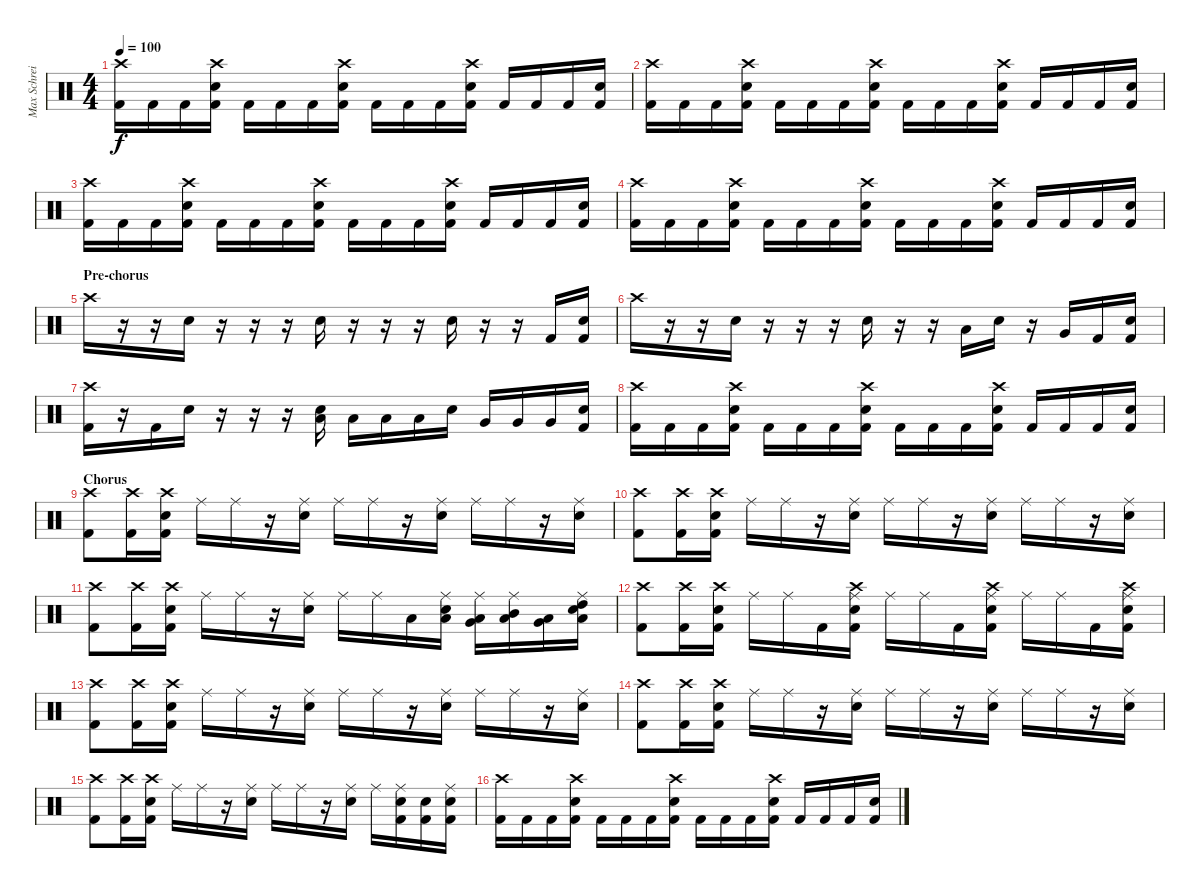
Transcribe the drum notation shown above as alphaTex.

\track ("Max Schreiber " "Max Schrei") {instrument percussion}
\staff {score}
\articulation defaults
\ts (4 4)
\tempo 100
\clef neutral
\ks c
("Crash high (hit)" "Kick (hit) 2").16{dy f} "Kick (hit) 2".16 "Kick (hit) 2".16 ("Crash high (hit)" "Electric Snare (hit)" "Kick (hit) 2").16 "Kick (hit) 2".16 "Kick (hit) 2".16 "Kick (hit) 2".16 ("Crash high (hit)" "Electric Snare (hit)" "Kick (hit) 2").16 "Kick (hit) 2".16 "Kick (hit) 2".16 "Kick (hit) 2".16 ("Crash high (hit)" "Electric Snare (hit)" "Kick (hit) 2").16 "Kick (hit) 2".16 "Kick (hit) 2".16 "Kick (hit) 2".16 ("Electric Snare (hit)" "Kick (hit) 2").16 |
("Crash high (hit)" "Kick (hit) 2").16 "Kick (hit) 2".16 "Kick (hit) 2".16 ("Crash high (hit)" "Electric Snare (hit)" "Kick (hit) 2").16 "Kick (hit) 2".16 "Kick (hit) 2".16 "Kick (hit) 2".16 ("Crash high (hit)" "Electric Snare (hit)" "Kick (hit) 2").16 "Kick (hit) 2".16 "Kick (hit) 2".16 "Kick (hit) 2".16 ("Crash high (hit)" "Electric Snare (hit)" "Kick (hit) 2").16 "Kick (hit) 2".16 "Kick (hit) 2".16 "Kick (hit) 2".16 ("Electric Snare (hit)" "Kick (hit) 2").16 |
("Crash high (hit)" "Kick (hit) 2").16 "Kick (hit) 2".16 "Kick (hit) 2".16 ("Crash high (hit)" "Electric Snare (hit)" "Kick (hit) 2").16 "Kick (hit) 2".16 "Kick (hit) 2".16 "Kick (hit) 2".16 ("Crash high (hit)" "Electric Snare (hit)" "Kick (hit) 2").16 "Kick (hit) 2".16 "Kick (hit) 2".16 "Kick (hit) 2".16 ("Crash high (hit)" "Electric Snare (hit)" "Kick (hit) 2").16 "Kick (hit) 2".16 "Kick (hit) 2".16 "Kick (hit) 2".16 ("Electric Snare (hit)" "Kick (hit) 2").16 |
("Crash high (hit)" "Kick (hit) 2").16 "Kick (hit) 2".16 "Kick (hit) 2".16 ("Crash high (hit)" "Electric Snare (hit)" "Kick (hit) 2").16 "Kick (hit) 2".16 "Kick (hit) 2".16 "Kick (hit) 2".16 ("Crash high (hit)" "Electric Snare (hit)" "Kick (hit) 2").16 "Kick (hit) 2".16 "Kick (hit) 2".16 "Kick (hit) 2".16 ("Crash high (hit)" "Electric Snare (hit)" "Kick (hit) 2").16 "Kick (hit) 2".16 "Kick (hit) 2".16 "Kick (hit) 2".16 ("Electric Snare (hit)" "Kick (hit) 2").16 |
\section ("" "Pre-chorus")
"Crash high (hit)".16 r.16 r.16 "Electric Snare (hit)".16 r.16 r.16 r.16 "Electric Snare (hit)".16 r.16 r.16 r.16 "Electric Snare (hit)".16 r.16 r.16 "Kick (hit) 2".16 ("Electric Snare (hit)" "Kick (hit) 2").16 |
"Crash high (hit)".16 r.16 r.16 "Electric Snare (hit)".16 r.16 r.16 r.16 "Electric Snare (hit)".16 r.16 r.16 "Low Tom (hit)".16 "Electric Snare (hit)".16 r.16 "Very Low Tom (hit)".16 "Kick (hit) 2".16 ("Electric Snare (hit)" "Kick (hit) 2").16 |
("Crash high (hit)" "Kick (hit) 2").16 r.16 "Kick (hit) 2".16 "Electric Snare (hit)".16 r.16 r.16 r.16 ("Low Tom (hit)" "Electric Snare (hit)").16 "Low Tom (hit)".16 "Low Tom (hit)".16 "Low Tom (hit)".16 "Electric Snare (hit)".16 "Very Low Tom (hit)".16 "Very Low Tom (hit)".16 "Very Low Tom (hit)".16 ("Electric Snare (hit)" "Kick (hit) 2").16 |
("Crash high (hit)" "Kick (hit) 2").16 "Kick (hit) 2".16 "Kick (hit) 2".16 ("Crash high (hit)" "Electric Snare (hit)" "Kick (hit) 2").16 "Kick (hit) 2".16 "Kick (hit) 2".16 "Kick (hit) 2".16 ("Crash high (hit)" "Electric Snare (hit)" "Kick (hit) 2").16 "Kick (hit) 2".16 "Kick (hit) 2".16 "Kick (hit) 2".16 ("Crash high (hit)" "Electric Snare (hit)" "Kick (hit) 2").16 "Kick (hit) 2".16 "Kick (hit) 2".16 "Kick (hit) 2".16 ("Electric Snare (hit)" "Kick (hit) 2").16 |
\section ("" "Chorus")
("Crash high (hit)" "Kick (hit) 2").8 ("Crash high (hit)" "Kick (hit) 2").16 ("Crash high (hit)" "Electric Snare (hit)" "Kick (hit) 2").16 "Ride (middle)".16 "Ride (middle)".16 r.16 ("Ride (middle)" "Electric Snare (hit)").16 "Ride (middle)".16 "Ride (middle)".16 r.16 ("Ride (middle)" "Electric Snare (hit)").16 "Ride (middle)".16 "Ride (middle)".16 r.16 ("Ride (middle)" "Electric Snare (hit)").16 |
("Crash high (hit)" "Kick (hit) 2").8 ("Crash high (hit)" "Kick (hit) 2").16 ("Crash high (hit)" "Electric Snare (hit)" "Kick (hit) 2").16 "Ride (middle)".16 "Ride (middle)".16 r.16 ("Ride (middle)" "Electric Snare (hit)").16 "Ride (middle)".16 "Ride (middle)".16 r.16 ("Ride (middle)" "Electric Snare (hit)").16 "Ride (middle)".16 "Ride (middle)".16 r.16 ("Ride (middle)" "Electric Snare (hit)").16 |
("Crash high (hit)" "Kick (hit) 2").8 ("Crash high (hit)" "Kick (hit) 2").16 ("Crash high (hit)" "Electric Snare (hit)" "Kick (hit) 2").16 "Ride (middle)".16 "Ride (middle)".16 r.16 ("Ride (middle)" "Electric Snare (hit)").16 "Ride (middle)".16 "Ride (middle)".16 "Low Tom (hit)".16 ("Ride (middle)" "Low Tom (hit)" "Electric Snare (hit)").16 ("Ride (middle)" "Low Tom (hit)" "Very Low Tom (hit)").16 ("Ride (middle)" "Low Tom (hit)" "Mid Tom (hit)").16 ("Low Tom (hit)" "Very Low Tom (hit)").16 ("Ride (middle)" "Low Tom (hit)" "Electric Snare (hit)" "High Tom (hit)").16 |
("Crash high (hit)" "Kick (hit) 2").8 ("Crash high (hit)" "Kick (hit) 2").16 ("Crash high (hit)" "Electric Snare (hit)" "Kick (hit) 2").16 "Ride (middle)".16 "Ride (middle)".16 "Kick (hit) 2".16 ("Ride (middle)" "Crash high (hit)" "Electric Snare (hit)" "Kick (hit) 2").16 "Ride (middle)".16 "Ride (middle)".16 "Kick (hit) 2".16 ("Ride (middle)" "Crash high (hit)" "Electric Snare (hit)" "Kick (hit) 2").16 "Ride (middle)".16 "Ride (middle)".16 "Kick (hit) 2".16 ("Ride (middle)" "Crash high (hit)" "Electric Snare (hit)" "Kick (hit) 2").16 |
("Crash high (hit)" "Kick (hit) 2").8 ("Crash high (hit)" "Kick (hit) 2").16 ("Crash high (hit)" "Electric Snare (hit)" "Kick (hit) 2").16 "Ride (middle)".16 "Ride (middle)".16 r.16 ("Ride (middle)" "Electric Snare (hit)").16 "Ride (middle)".16 "Ride (middle)".16 r.16 ("Ride (middle)" "Electric Snare (hit)").16 "Ride (middle)".16 "Ride (middle)".16 r.16 ("Ride (middle)" "Electric Snare (hit)").16 |
("Crash high (hit)" "Kick (hit) 2").8 ("Crash high (hit)" "Kick (hit) 2").16 ("Crash high (hit)" "Electric Snare (hit)" "Kick (hit) 2").16 "Ride (middle)".16 "Ride (middle)".16 r.16 ("Ride (middle)" "Electric Snare (hit)").16 "Ride (middle)".16 "Ride (middle)".16 r.16 ("Ride (middle)" "Electric Snare (hit)").16 "Ride (middle)".16 "Ride (middle)".16 r.16 ("Ride (middle)" "Electric Snare (hit)").16 |
("Crash high (hit)" "Kick (hit) 2").8 ("Crash high (hit)" "Kick (hit) 2").16 ("Crash high (hit)" "Electric Snare (hit)" "Kick (hit) 2").16 "Ride (middle)".16 "Ride (middle)".16 r.16 ("Ride (middle)" "Electric Snare (hit)").16 "Ride (middle)".16 "Ride (middle)".16 r.16 ("Ride (middle)" "Electric Snare (hit)").16 "Ride (middle)".16 ("Ride (middle)" "Electric Snare (hit)" "Kick (hit) 2").16 ("Electric Snare (hit)" "Kick (hit) 2").16 ("Ride (middle)" "Electric Snare (hit)" "Kick (hit) 2").16 |
("Crash high (hit)" "Kick (hit) 2").16 "Kick (hit) 2".16 "Kick (hit) 2".16 ("Crash high (hit)" "Electric Snare (hit)" "Kick (hit) 2").16 "Kick (hit) 2".16 "Kick (hit) 2".16 "Kick (hit) 2".16 ("Crash high (hit)" "Electric Snare (hit)" "Kick (hit) 2").16 "Kick (hit) 2".16 "Kick (hit) 2".16 "Kick (hit) 2".16 ("Crash high (hit)" "Electric Snare (hit)" "Kick (hit) 2").16 "Kick (hit) 2".16 "Kick (hit) 2".16 "Kick (hit) 2".16 ("Electric Snare (hit)" "Kick (hit) 2").16
